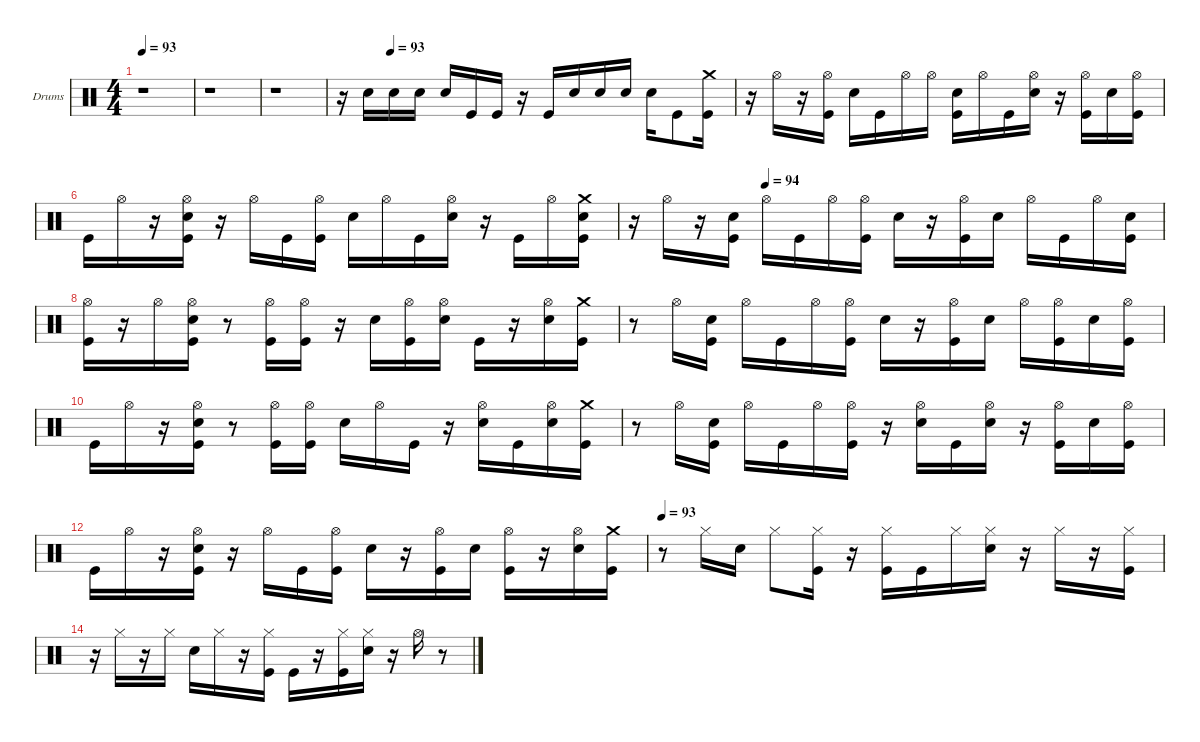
\hideDynamics
\bracketExtendMode nobrackets
\multiTrackTrackNamePolicy hidden
\firstSystemTrackNameOrientation horizontal
\otherSystemsTrackNameOrientation horizontal
\defaultBarNumberDisplay FirstOfSystem
\track ("" "Drums") {instrument percussion}
\staff {score}
\articulation defaults
\ts (4 4)
\tempo 93
\clef neutral
\ks c
r.1{dy mf} |
r.1 |
r.1 |
\tempo (93 0.125)
r.16 "Snare (hit) 2".16 "Snare (hit) 2".16 "Snare (hit) 2".16 "Snare (hit) 2".16 "Kick (hit)".16 "Kick (hit)".16 r.16 "Kick (hit)".16 "Snare (hit) 2".16 "Snare (hit) 2".16 "Snare (hit) 2".16 "Snare (hit) 2".16 "Kick (hit)".8 ("Crash medium (hit)" "Kick (hit)").16 |
r.16 "Hi-Hat (open)".16 r.16 ("Kick (hit)" "Hi-Hat (open)").16 "Snare (hit) 2".16 "Kick (hit)".16 "Hi-Hat (open)".16 "Hi-Hat (open)".16 ("Kick (hit)" "Snare (hit) 2").16 "Hi-Hat (open)".16 "Kick (hit)".16 ("Hi-Hat (open)" "Snare (hit) 2").16 r.16 ("Hi-Hat (open)" "Kick (hit)").16 "Snare (hit) 2".16 ("Hi-Hat (open)" "Kick (hit)").16 |
"Kick (hit)".16 "Hi-Hat (open)".16 r.16 ("Kick (hit)" "Snare (hit) 2" "Hi-Hat (open)").16 r.16 "Hi-Hat (open)".16 "Kick (hit)".16 ("Hi-Hat (open)" "Kick (hit)").16 "Snare (hit) 2".16 "Hi-Hat (open)".16 "Kick (hit)".16 ("Snare (hit) 2" "Hi-Hat (open)").16 r.16 "Kick (hit)".16 "Hi-Hat (open)".16 ("Snare (hit) 2" "Crash medium (hit)" "Kick (hit)").16 |
\tempo (94 0.25)
r.16 "Hi-Hat (open)".16 r.16 ("Kick (hit)" "Snare (hit) 2").16 "Hi-Hat (open)".16 "Kick (hit)".16 "Hi-Hat (open)".16 ("Kick (hit)" "Hi-Hat (open)").16 "Snare (hit) 2".16 r.16 ("Hi-Hat (open)" "Kick (hit)").16 "Snare (hit) 2".16 "Hi-Hat (open)".16 "Kick (hit)".16 "Hi-Hat (open)".16 ("Snare (hit) 2" "Kick (hit)").16 |
("Hi-Hat (open)" "Kick (hit)").16 r.16 "Hi-Hat (open)".16 ("Kick (hit)" "Snare (hit) 2" "Hi-Hat (open)").16 r.8 ("Kick (hit)" "Hi-Hat (open)").16 ("Hi-Hat (open)" "Kick (hit)").16 r.16 "Snare (hit) 2".16 ("Hi-Hat (open)" "Kick (hit)").16 ("Snare (hit) 2" "Hi-Hat (open)").16 "Kick (hit)".16 r.16 ("Hi-Hat (open)" "Snare (hit) 2").16 ("Crash medium (hit)" "Kick (hit)").16 |
r.8 "Hi-Hat (open)".16 ("Kick (hit)" "Snare (hit) 2").16 "Hi-Hat (open)".16 "Kick (hit)".16 "Hi-Hat (open)".16 ("Hi-Hat (open)" "Kick (hit)").16 "Snare (hit) 2".16 r.16 ("Hi-Hat (open)" "Kick (hit)").16 "Snare (hit) 2".16 "Hi-Hat (open)".16 ("Kick (hit)" "Hi-Hat (open)").16 "Snare (hit) 2".16 ("Hi-Hat (open)" "Kick (hit)").16 |
"Kick (hit)".16 "Hi-Hat (open)".16 r.16 ("Kick (hit)" "Hi-Hat (open)" "Snare (hit) 2").16 r.8 ("Hi-Hat (open)" "Kick (hit)").16 ("Hi-Hat (open)" "Kick (hit)").16 "Snare (hit) 2".16 "Hi-Hat (open)".16 "Kick (hit)".16 r.16 ("Hi-Hat (open)" "Snare (hit) 2").16 "Kick (hit)".16 ("Hi-Hat (open)" "Snare (hit) 2").16 ("Kick (hit)" "Crash medium (hit)").16 |
r.8 "Hi-Hat (open)".16 ("Kick (hit)" "Snare (hit) 2").16 "Hi-Hat (open)".16 "Kick (hit)".16 "Hi-Hat (open)".16 ("Hi-Hat (open)" "Kick (hit)").16 r.16 ("Snare (hit) 2" "Hi-Hat (open)").16 "Kick (hit)".16 ("Snare (hit) 2" "Hi-Hat (open)").16 r.16 ("Kick (hit)" "Hi-Hat (open)").16 "Snare (hit) 2".16 ("Hi-Hat (open)" "Kick (hit)").16 |
"Kick (hit)".16 "Hi-Hat (open)".16 r.16 ("Kick (hit)" "Hi-Hat (open)" "Snare (hit) 2").16 r.16 "Hi-Hat (open)".16 "Kick (hit)".16 ("Hi-Hat (open)" "Kick (hit)").16 "Snare (hit) 2".16 r.16 ("Hi-Hat (open)" "Kick (hit)").16 "Snare (hit) 2".16 ("Hi-Hat (open)" "Kick (hit)").16 r.16 ("Hi-Hat (open)" "Snare (hit) 2").16 ("Kick (hit)" "Crash medium (hit)").16 |
\tempo 93
r.8 "Hi-Hat (closed)".16 "Snare (hit) 2".16 "Hi-Hat (closed)".8 ("Hi-Hat (closed)" "Kick (hit)").16 r.16 ("Hi-Hat (closed)" "Kick (hit)").16 "Kick (hit)".16 "Hi-Hat (closed)".16 ("Snare (hit) 2" "Hi-Hat (closed)").16 r.16 "Hi-Hat (closed)".16 r.16 ("Kick (hit)" "Hi-Hat (closed)").16 |
r.16 "Hi-Hat (closed)".16 r.16 "Hi-Hat (closed)".16 "Snare (hit) 2".16 "Hi-Hat (closed)".16 r.16 ("Kick (hit)" "Hi-Hat (closed)").16 "Kick (hit)".16 r.16 ("Kick (hit)" "Hi-Hat (closed)").16 ("Snare (hit) 2" "Hi-Hat (closed)").16 r.16 "Hi-Hat (open)".16 r.8
